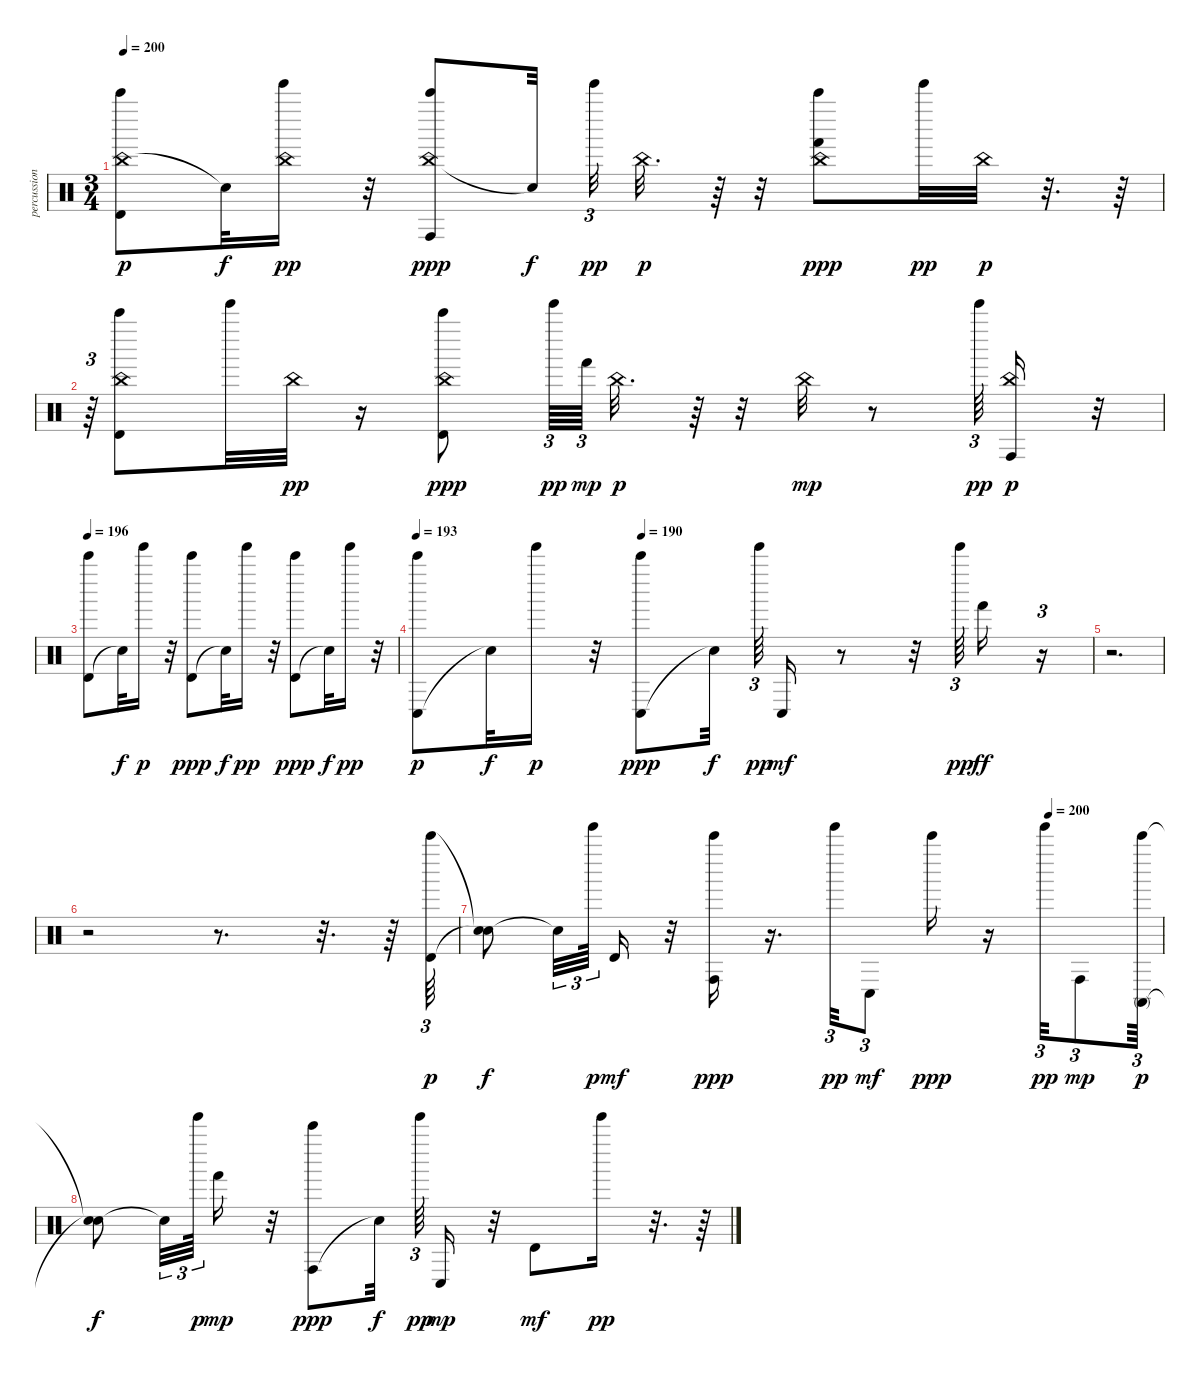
\track ("percussion" "percussion") {instrument percussion}
\staff {score}
\articulation defaults
\ts (3 4)
\tempo 200
\clef neutral
\ks c
("China (hit)" "Timbale high (hit)" "Bell Tree (hit)").8{dy p} "Snare (hit)"{t}.32{dy f} ("Tinkle Bell (hit)" "China (hit)").16{dy pp} r.32 ("China (hit)" "Conga high (hit)" "Bell Tree (hit)").8{dy ppp} "Snare (hit)"{t}.32{dy f} "Tinkle Bell (hit)".32{tu (3 2) dy pp} "China (hit)".32{d dy p} r.64 r.32 ("China (hit)" "Hand (hit)" "Bell Tree (hit)").8{dy ppp} "Tinkle Bell (hit)".32{dy pp} "China (hit)".32{dy p} r.32{d} r.64 |
r.64{tu (3 2)} ("China (hit)" "Timbale high (hit)" "Bell Tree (hit)").8 "Tinkle Bell (hit)".32 "China (hit)".32{dy pp} r.16 ("China (hit)" "Timbale high (hit)" "Bell Tree (hit)").8{dy ppp} "Tinkle Bell (hit)".64{tu (3 2) dy pp} "Hand (hit)".64{tu (3 2) dy mp} "China (hit)".32{d dy p} r.64 r.32 "China (hit)".32{dy mp} r.8 "Tinkle Bell (hit)".64{tu (3 2) dy pp} ("Conga high (hit)" "China (hit)").16{dy p} r.32 |
\tempo 196
("Timbale high (hit)" "Bell Tree (hit)").8 "Snare (hit)"{t}.32{dy f} "Tinkle Bell (hit)".16{dy p} r.32 ("Timbale high (hit)" "Bell Tree (hit)").8{dy ppp} "Snare (hit)"{t}.32{dy f} "Tinkle Bell (hit)".16{dy pp} r.32 ("Timbale high (hit)" "Bell Tree (hit)").8{dy ppp} "Snare (hit)"{t}.32{dy f} "Tinkle Bell (hit)".16{dy pp} r.32 |
\tempo 193
\tempo (190 0.3333333333333333)
("Conga low (hit)" "Bell Tree (hit)").8{dy p} "Snare (hit)"{t}.32{dy f} "Tinkle Bell (hit)".16{dy p} r.32 ("Conga low (hit)" "Bell Tree (hit)").8{dy ppp} "Snare (hit)"{t}.32{dy f} "Tinkle Bell (hit)".64{tu (3 2) dy pp} "Conga low (hit)".16{dy mf} r.8 r.32 "Tinkle Bell (hit)".64{tu (3 2) dy pp} "Hand (hit)".16{dy ff} r.16{tu (3 2)} |
r.2{d} |
r.2 r.8{d} r.32{d} r.64 ("Timbale high (hit)" "Bell Tree (hit)").64{tu (3 2) dy p} |
\tempo (200 0.8333333333333334)
("Snare (hit)"{t} "Snare (hit)"{t}).8{dy f} "Snare (hit)"{t}.32{tu (3 2)} "Tinkle Bell (hit)".64{tu (3 2) dy p} "Timbale high (hit)".16{dy mf} r.32 ("Conga high (hit)" "Bell Tree (hit)").16{dy ppp} r.16{d} "Tinkle Bell (hit)".32{tu (3 2) dy pp} "Conga low (hit)".8{tu (3 2) dy mf} "Bell Tree (hit)".16{dy ppp} r.16 "Tinkle Bell (hit)".32{tu (3 2) dy pp} "Conga high (hit)".8{tu (3 2) dy mp} ("Conga high (mute)" "Bell Tree (hit)").64{tu (3 2) dy p} |
("Snare (hit)"{t} "Snare (hit)"{t}).8{dy f} "Snare (hit)"{t}.32{tu (3 2)} "Tinkle Bell (hit)".64{tu (3 2) dy p} "Hand (hit)".16{dy mp} r.32 ("Conga high (hit)" "Bell Tree (hit)").8{dy ppp} "Snare (hit)"{t}.32{dy f} "Tinkle Bell (hit)".64{tu (3 2) dy pp} "Conga low (hit)".16{dy mp} r.32 "Timbale high (hit)".8{dy mf} "Tinkle Bell (hit)".16{dy pp} r.32{d} r.64
